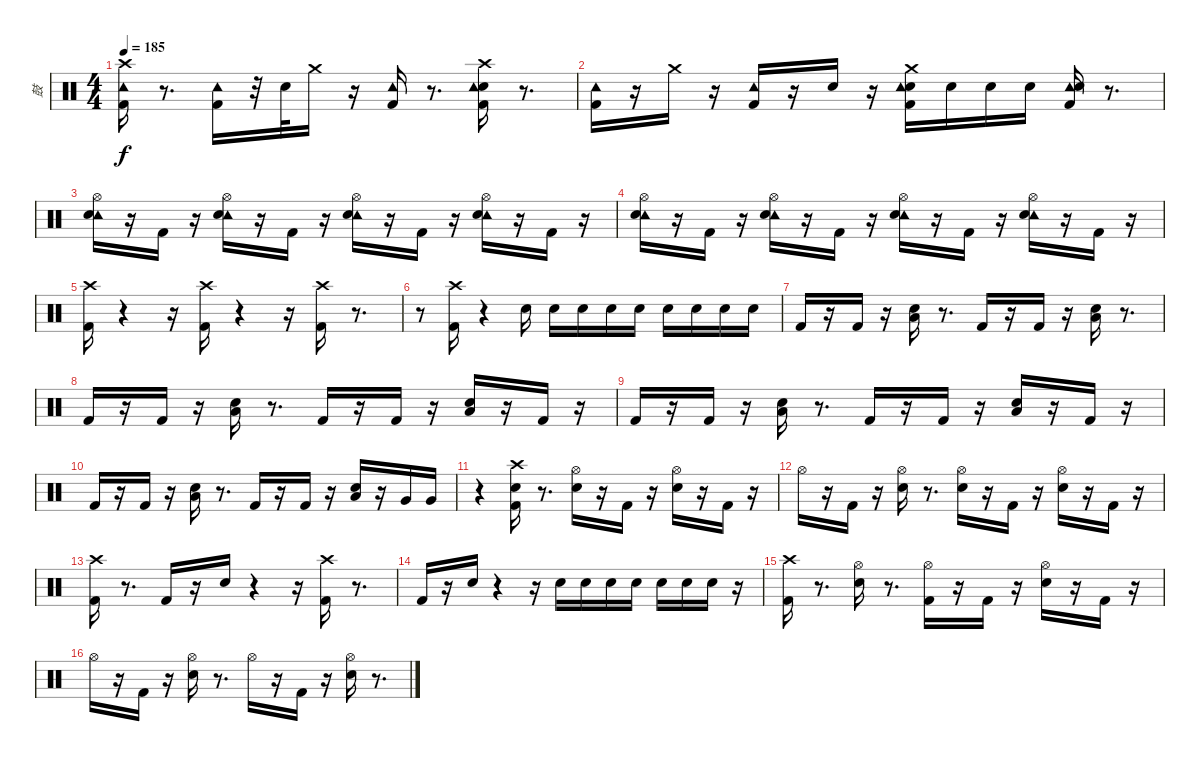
\track ("鼓" "鼓") {instrument percussion}
\staff {score}
\articulation defaults
\ts (4 4)
\tempo 185
\clef neutral
\ks c
("Crash high (hit)" "Kick (hit) 2" "Tambourine (hit)").16{dy f} r.8{d} ("Kick (hit) 2" "Tambourine (hit)").16 r.32 "Snare (hit) 2".32 "Crash medium (hit)".16 r.16 ("Kick (hit) 2" "Tambourine (hit)").16 r.8{d} ("Crash high (hit)" "Snare (hit) 2" "Kick (hit) 2" "Tambourine (hit)").16 r.8{d} |
("Tambourine (hit)" "Kick (hit) 2").16 r.16 "Crash medium (hit)".16 r.16 ("Tambourine (hit)" "Kick (hit) 2").16 r.16 "Snare (hit) 2".16 r.16 ("Snare (hit) 2" "Tambourine (hit)" "Kick (hit) 2" "Crash medium (hit)").16 "Snare (hit) 2".16 "Snare (hit) 2".16 "Snare (hit) 2".16 ("Tambourine (hit)" "Snare (hit) 2" "Kick (hit) 2").16 r.8{d} |
("Tambourine (hit)" "Hi-Hat (open)" "Snare (hit) 2").16 r.16 "Kick (hit) 2".16 r.16 ("Tambourine (hit)" "Hi-Hat (open)" "Snare (hit) 2").16 r.16 "Kick (hit) 2".16 r.16 ("Tambourine (hit)" "Hi-Hat (open)" "Snare (hit) 2").16 r.16 "Kick (hit) 2".16 r.16 ("Tambourine (hit)" "Hi-Hat (open)" "Snare (hit) 2").16 r.16 "Kick (hit) 2".16 r.16 |
("Tambourine (hit)" "Hi-Hat (open)" "Snare (hit) 2").16 r.16 "Kick (hit) 2".16 r.16 ("Tambourine (hit)" "Hi-Hat (open)" "Snare (hit) 2").16 r.16 "Kick (hit) 2".16 r.16 ("Tambourine (hit)" "Hi-Hat (open)" "Snare (hit) 2").16 r.16 "Kick (hit) 2".16 r.16 ("Tambourine (hit)" "Hi-Hat (open)" "Snare (hit) 2").16 r.16 "Kick (hit) 2".16 r.16 |
("Kick (hit) 2" "Crash high (hit)").16 r.4 r.16 ("Kick (hit) 2" "Crash high (hit)").16 r.4 r.16 ("Kick (hit) 2" "Crash high (hit)").16 r.8{d} |
r.8 ("Kick (hit) 2" "Crash high (hit)").16 r.4 "Snare (hit) 2".16 "Snare (hit) 2".16 "Snare (hit) 2".16 "Snare (hit) 2".16 "Snare (hit) 2".16 "Snare (hit) 2".16 "Snare (hit) 2".16 "Snare (hit) 2".16 "Snare (hit) 2".16 |
"Kick (hit) 2".16 r.16 "Kick (hit) 2".16 r.16 ("Low Floor Tom (hit)" "Snare (hit) 2").16 r.8{d} "Kick (hit) 2".16 r.16 "Kick (hit) 2".16 r.16 ("Low Floor Tom (hit)" "Snare (hit) 2").16 r.8{d} |
"Kick (hit) 2".16 r.16 "Kick (hit) 2".16 r.16 ("Low Floor Tom (hit)" "Snare (hit) 2").16 r.8{d} "Kick (hit) 2".16 r.16 "Kick (hit) 2".16 r.16 ("Low Floor Tom (hit)" "Snare (hit) 2").16 r.16 "Kick (hit) 2".16 r.16 |
"Kick (hit) 2".16 r.16 "Kick (hit) 2".16 r.16 ("Low Floor Tom (hit)" "Snare (hit) 2").16 r.8{d} "Kick (hit) 2".16 r.16 "Kick (hit) 2".16 r.16 ("Low Floor Tom (hit)" "Snare (hit) 2").16 r.16 "Kick (hit) 2".16 r.16 |
"Kick (hit) 2".16 r.16 "Kick (hit) 2".16 r.16 ("Low Floor Tom (hit)" "Snare (hit) 2").16 r.8{d} "Kick (hit) 2".16 r.16 "Kick (hit) 2".16 r.16 ("Low Floor Tom (hit)" "Snare (hit) 2").16 r.16 "Very Low Tom (hit)".16 "Very Low Tom (hit)".16 |
r.4 ("Snare (hit) 2" "Kick (hit) 2" "Crash high (hit)").16 r.8{d} ("Snare (hit) 2" "Hi-Hat (open)").16 r.16 "Kick (hit) 2".16 r.16 ("Snare (hit) 2" "Hi-Hat (open)").16 r.16 "Kick (hit) 2".16 r.16 |
"Hi-Hat (open)".16 r.16 "Kick (hit) 2".16 r.16 ("Snare (hit) 2" "Hi-Hat (open)").16 r.8{d} ("Hi-Hat (open)" "Snare (hit) 2").16 r.16 "Kick (hit) 2".16 r.16 ("Hi-Hat (open)" "Snare (hit) 2").16 r.16 "Kick (hit) 2".16 r.16 |
("Kick (hit) 2" "Crash high (hit)").16 r.8{d} "Kick (hit) 2".16 r.16 "Snare (hit) 2".16 r.4 r.16 ("Kick (hit) 2" "Crash high (hit)").16 r.8{d} |
"Kick (hit) 2".16 r.16 "Snare (hit) 2".16 r.4 r.16 "Snare (hit) 2".16 "Snare (hit) 2".16 "Snare (hit) 2".16 "Snare (hit) 2".16 "Snare (hit) 2".16 "Snare (hit) 2".16 "Snare (hit) 2".16 r.16 |
("Crash high (hit)" "Kick (hit) 2").16 r.8{d} ("Hi-Hat (open)" "Snare (hit) 2").16 r.8{d} ("Hi-Hat (open)" "Kick (hit) 2").16 r.16 "Kick (hit) 2".16 r.16 ("Hi-Hat (open)" "Snare (hit) 2").16 r.16 "Kick (hit) 2".16 r.16 |
"Hi-Hat (open)".16 r.16 "Kick (hit) 2".16 r.16 ("Hi-Hat (open)" "Snare (hit) 2").16 r.8{d} "Hi-Hat (open)".16 r.16 "Kick (hit) 2".16 r.16 ("Hi-Hat (open)" "Snare (hit) 2").16 r.8{d}
